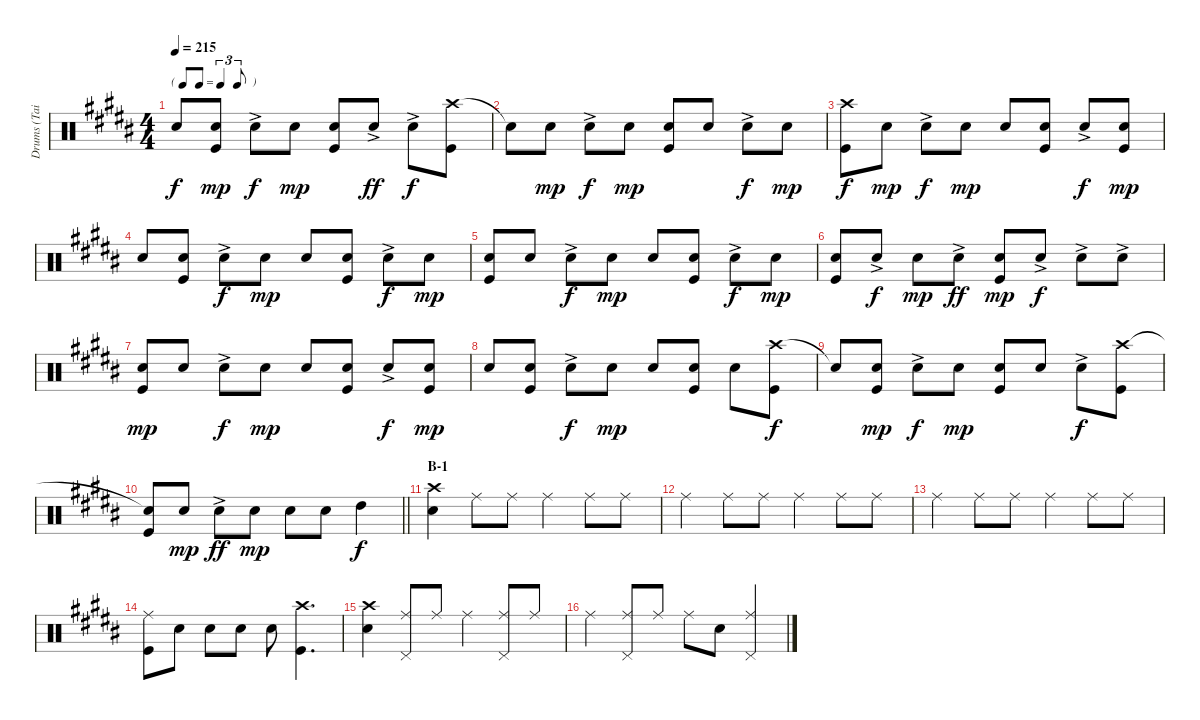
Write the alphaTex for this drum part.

\track ("Drums (Tainaka Ritsu)" "Drums (Tai") {instrument percussion}
\staff {score}
\articulation defaults
\ts (4 4)
\tf triplet8th
\tempo 215
\clef neutral
\ks b "Snare (hit)"{t}.8{dy f}
("Snare (hit) 2" "Kick (hit)").8{dy mp} "Snare (hit) 2"{ac}.8{dy f} "Snare (hit) 2".8{dy mp} ("Snare (hit) 2" "Kick (hit)").8 "Snare (hit) 2"{ac}.8{dy ff} "Snare (hit) 2"{ac}.8{dy f} ("Crash high (hit)" "Kick (hit)").8 |
"Snare (hit)"{t}.8 "Snare (hit) 2".8{dy mp} "Snare (hit) 2"{ac}.8{dy f} "Snare (hit) 2".8{dy mp} ("Snare (hit) 2" "Kick (hit)").8 "Snare (hit) 2".8 "Snare (hit) 2"{ac}.8{dy f} "Snare (hit) 2".8{dy mp} |
("Crash high (hit)" "Kick (hit)").8{dy f} "Snare (hit) 2".8{dy mp} "Snare (hit) 2"{ac}.8{dy f} "Snare (hit) 2".8{dy mp} "Snare (hit) 2".8 ("Snare (hit) 2" "Kick (hit)").8 "Snare (hit) 2"{ac}.8{dy f} ("Snare (hit) 2" "Kick (hit)").8{dy mp} |
"Snare (hit) 2".8 ("Snare (hit) 2" "Kick (hit)").8 "Snare (hit) 2"{ac}.8{dy f} "Snare (hit) 2".8{dy mp} "Snare (hit) 2".8 ("Snare (hit) 2" "Kick (hit)").8 "Snare (hit) 2"{ac}.8{dy f} "Snare (hit) 2".8{dy mp} |
("Snare (hit) 2" "Kick (hit)").8 "Snare (hit) 2".8 "Snare (hit) 2"{ac}.8{dy f} "Snare (hit) 2".8{dy mp} "Snare (hit) 2".8 ("Snare (hit) 2" "Kick (hit)").8 "Snare (hit) 2"{ac}.8{dy f} "Snare (hit) 2".8{dy mp} |
("Snare (hit) 2" "Kick (hit)").8 "Snare (hit) 2"{ac}.8{dy f} "Snare (hit) 2".8{dy mp} "Snare (hit) 2"{ac}.8{dy ff} ("Snare (hit) 2" "Kick (hit)").8{dy mp} "Snare (hit) 2"{ac}.8{dy f} "Snare (hit) 2"{ac}.8 "Snare (hit) 2"{ac}.8 |
("Snare (hit) 2" "Kick (hit)").8{dy mp} "Snare (hit) 2".8 "Snare (hit) 2"{ac}.8{dy f} "Snare (hit) 2".8{dy mp} "Snare (hit) 2".8 ("Snare (hit) 2" "Kick (hit)").8 "Snare (hit) 2"{ac}.8{dy f} ("Snare (hit) 2" "Kick (hit)").8{dy mp} |
"Snare (hit) 2".8 ("Snare (hit) 2" "Kick (hit)").8 "Snare (hit) 2"{ac}.8{dy f} "Snare (hit) 2".8{dy mp} "Snare (hit) 2".8 ("Snare (hit) 2" "Kick (hit)").8 "Snare (hit) 2".8 ("Crash high (hit)" "Kick (hit)").8{dy f} |
"Snare (hit)"{t}.8 ("Snare (hit) 2" "Kick (hit)").8{dy mp} "Snare (hit) 2"{ac}.8{dy f} "Snare (hit) 2".8{dy mp} ("Snare (hit) 2" "Kick (hit)").8 "Snare (hit) 2".8 "Snare (hit) 2"{ac}.8{dy f} ("Crash high (hit)" "Kick (hit)").8 |
\barLineRight lightlight
("Snare (hit)"{t} "Kick (hit)").8 "Snare (hit) 2".8{dy mp} "Snare (hit) 2"{ac}.8{dy ff} "Snare (hit) 2".8{dy mp} "Snare (hit) 2".8 "Snare (hit) 2".8 "High Tom (hit)".4{dy f} |
\section ("" "B-1")
("Crash high (hit)" "Snare (hit) 2").4 "Ride (middle)".8 "Ride (middle)".8 "Ride (middle)".4 "Ride (middle)".8 "Ride (middle)".8 |
"Ride (middle)".4 "Ride (middle)".8 "Ride (middle)".8 "Ride (middle)".4 "Ride (middle)".8 "Ride (middle)".8 |
"Ride (middle)".4 "Ride (middle)".8 "Ride (middle)".8 "Ride (middle)".4 "Ride (middle)".8 "Ride (middle)".8 |
("Ride (middle)" "Kick (hit)").8 "Snare (hit) 2".8 "Snare (hit) 2".8 "Snare (hit) 2".8 "Snare (hit) 2".8 ("Crash high (hit)" "Kick (hit)").4{d} |
("Crash high (hit)" "Snare (hit) 2").4 ("Ride (middle)" "Pedal Hi-Hat (hit)").8 "Ride (middle)".8 "Ride (middle)".4 ("Ride (middle)" "Pedal Hi-Hat (hit)").8 "Ride (middle)".8 |
"Ride (middle)".4 ("Ride (middle)" "Pedal Hi-Hat (hit)").8 "Ride (middle)".8 "Ride (middle)".8 "Snare (hit) 2".8 ("Ride (middle)" "Pedal Hi-Hat (hit)").4
